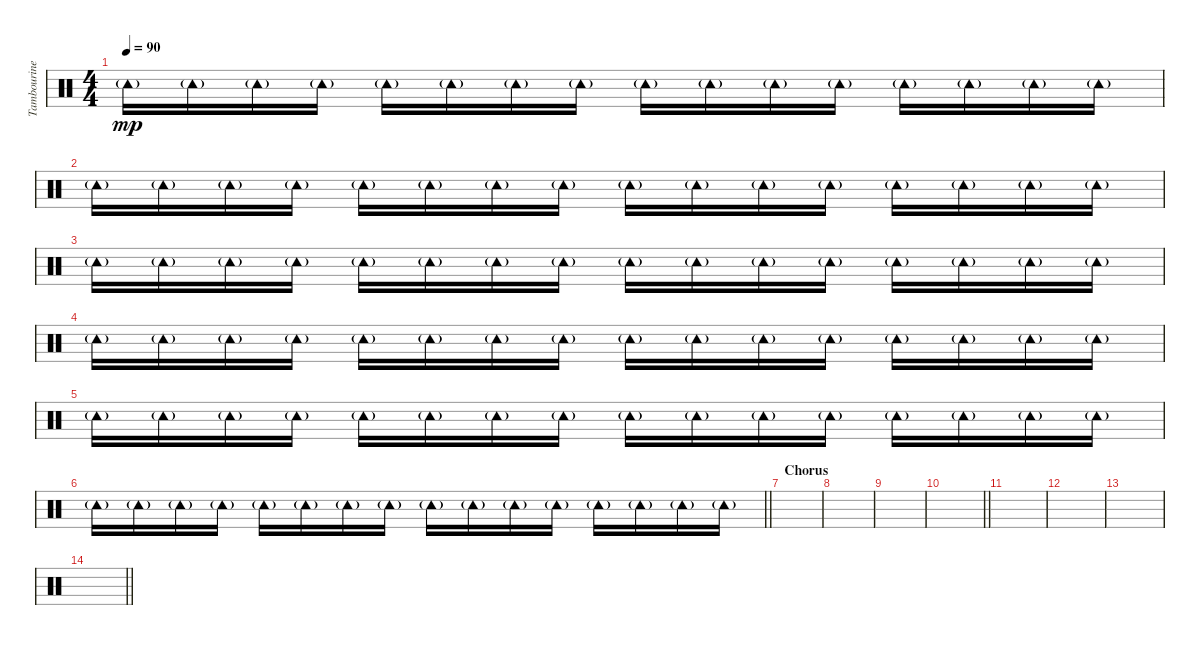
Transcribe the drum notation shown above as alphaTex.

\track ("Tambourine" "Tambourine") {instrument percussion}
\staff {score}
\articulation defaults
\ts (4 4)
\tempo 90
\clef neutral
\ks c "Tambourine (hit)"{g}.16{dy mp} "Tambourine (hit)"{g}.16 "Tambourine (hit)"{g}.16 "Tambourine (hit)"{g}.16 "Tambourine (hit)"{g}.16 "Tambourine (hit)"{g}.16 "Tambourine (hit)"{g}.16 "Tambourine (hit)"{g}.16 "Tambourine (hit)"{g}.16 "Tambourine (hit)"{g}.16 "Tambourine (hit)"{g}.16 "Tambourine (hit)"{g}.16 "Tambourine (hit)"{g}.16 "Tambourine (hit)"{g}.16 "Tambourine (hit)"{g}.16 "Tambourine (hit)"{g}.16
|
"Tambourine (hit)"{g}.16 "Tambourine (hit)"{g}.16 "Tambourine (hit)"{g}.16 "Tambourine (hit)"{g}.16 "Tambourine (hit)"{g}.16 "Tambourine (hit)"{g}.16 "Tambourine (hit)"{g}.16 "Tambourine (hit)"{g}.16 "Tambourine (hit)"{g}.16 "Tambourine (hit)"{g}.16 "Tambourine (hit)"{g}.16 "Tambourine (hit)"{g}.16 "Tambourine (hit)"{g}.16 "Tambourine (hit)"{g}.16 "Tambourine (hit)"{g}.16 "Tambourine (hit)"{g}.16 |
"Tambourine (hit)"{g}.16 "Tambourine (hit)"{g}.16 "Tambourine (hit)"{g}.16 "Tambourine (hit)"{g}.16 "Tambourine (hit)"{g}.16 "Tambourine (hit)"{g}.16 "Tambourine (hit)"{g}.16 "Tambourine (hit)"{g}.16 "Tambourine (hit)"{g}.16 "Tambourine (hit)"{g}.16 "Tambourine (hit)"{g}.16 "Tambourine (hit)"{g}.16 "Tambourine (hit)"{g}.16 "Tambourine (hit)"{g}.16 "Tambourine (hit)"{g}.16 "Tambourine (hit)"{g}.16 |
"Tambourine (hit)"{g}.16 "Tambourine (hit)"{g}.16 "Tambourine (hit)"{g}.16 "Tambourine (hit)"{g}.16 "Tambourine (hit)"{g}.16 "Tambourine (hit)"{g}.16 "Tambourine (hit)"{g}.16 "Tambourine (hit)"{g}.16 "Tambourine (hit)"{g}.16 "Tambourine (hit)"{g}.16 "Tambourine (hit)"{g}.16 "Tambourine (hit)"{g}.16 "Tambourine (hit)"{g}.16 "Tambourine (hit)"{g}.16 "Tambourine (hit)"{g}.16 "Tambourine (hit)"{g}.16 |
"Tambourine (hit)"{g}.16 "Tambourine (hit)"{g}.16 "Tambourine (hit)"{g}.16 "Tambourine (hit)"{g}.16 "Tambourine (hit)"{g}.16 "Tambourine (hit)"{g}.16 "Tambourine (hit)"{g}.16 "Tambourine (hit)"{g}.16 "Tambourine (hit)"{g}.16 "Tambourine (hit)"{g}.16 "Tambourine (hit)"{g}.16 "Tambourine (hit)"{g}.16 "Tambourine (hit)"{g}.16 "Tambourine (hit)"{g}.16 "Tambourine (hit)"{g}.16 "Tambourine (hit)"{g}.16 |
\barLineRight lightlight "Tambourine (hit)"{g}.16 "Tambourine (hit)"{g}.16 "Tambourine (hit)"{g}.16 "Tambourine (hit)"{g}.16 "Tambourine (hit)"{g}.16 "Tambourine (hit)"{g}.16 "Tambourine (hit)"{g}.16 "Tambourine (hit)"{g}.16 "Tambourine (hit)"{g}.16 "Tambourine (hit)"{g}.16 "Tambourine (hit)"{g}.16 "Tambourine (hit)"{g}.16 "Tambourine (hit)"{g}.16 "Tambourine (hit)"{g}.16 "Tambourine (hit)"{g}.16 "Tambourine (hit)"{g}.16
|
\section ("" "Chorus")
|
|
|
\barLineRight lightlight
|
|
|
|
\barLineRight lightlight
